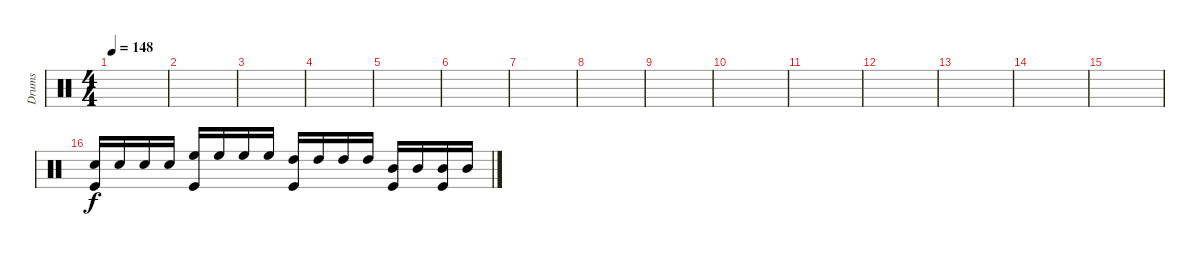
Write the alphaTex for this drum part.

\track ("Drums" "Drums") {instrument percussion}
\staff {score}
\articulation defaults
\ts (4 4)
\tempo 148
\clef neutral
\ks c
|
|
|
|
|
|
|
|
|
|
|
|
|
|
|
("Snare (hit) 2" "Kick (hit)").16 "Snare (hit) 2".16 "Snare (hit) 2".16 "Snare (hit) 2".16 ("High Floor Tom (hit)" "Kick (hit)").16 "High Floor Tom (hit)".16 "High Floor Tom (hit)".16 "High Floor Tom (hit)".16 ("High Tom (hit)" "Kick (hit)").16 "High Tom (hit)".16 "High Tom (hit)".16 "High Tom (hit)".16 ("Mid Tom (hit)" "Kick (hit)").16 "Mid Tom (hit)".16 ("Mid Tom (hit)" "Kick (hit)").16 "Mid Tom (hit)".16
